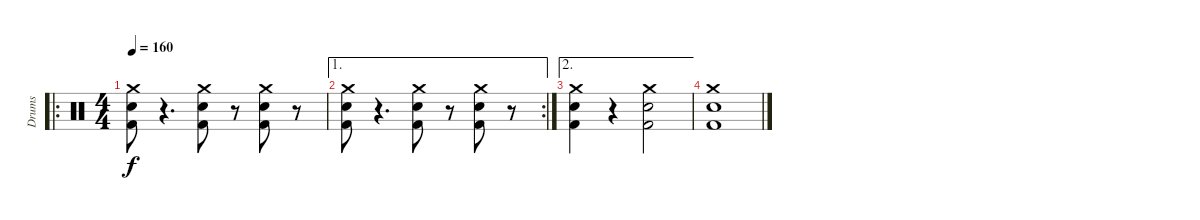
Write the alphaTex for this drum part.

\track ("Drums" "Drums") {instrument percussion}
\staff {score}
\articulation defaults
\ro
\ts (4 4)
\tempo 160
\clef neutral
\ks c
("Electric Snare (hit)" "Kick (hit) 2" "Crash medium (hit)").8{dy f} r.4{d} ("Electric Snare (hit)" "Kick (hit) 2" "Crash medium (hit)").8 r.8 ("Electric Snare (hit)" "Kick (hit) 2" "Crash medium (hit)").8 r.8 |
\ae 1
\rc 2
("Electric Snare (hit)" "Kick (hit) 2" "Crash medium (hit)").8 r.4{d} ("Electric Snare (hit)" "Kick (hit) 2" "Crash medium (hit)").8 r.8 ("Electric Snare (hit)" "Kick (hit) 2" "Crash medium (hit)").8 r.8 |
\ae 2
("Electric Snare (hit)" "Kick (hit) 2" "Crash medium (hit)").4 r.4 ("Electric Snare (hit)" "Kick (hit) 2" "Crash medium (hit)").2 |
("Electric Snare (hit)" "Kick (hit) 2" "Crash medium (hit)").1
